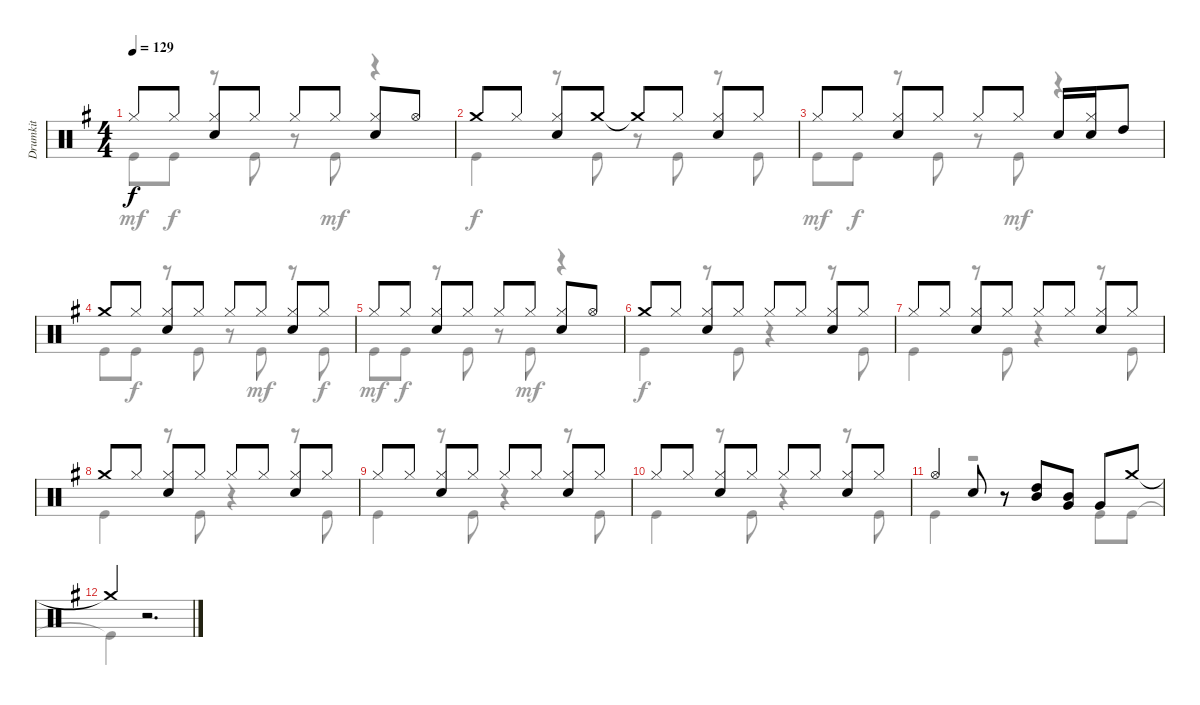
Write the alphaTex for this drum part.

\track ("Drumkit" "Drumkit") {instrument percussion}
\staff {score}
\articulation defaults
\voice
\ts (4 4)
\tempo 129
\clef neutral
\ks g "Hi-Hat (closed)".8{dy f} "Hi-Hat (closed)".8
("Hi-Hat (closed)" "Snare (hit) 2").8 "Hi-Hat (closed)".8 "Hi-Hat (closed)".8 "Hi-Hat (closed)".8 ("Hi-Hat (closed)" "Snare (hit) 2").8 "Hi-Hat (open)".8 |
"Crash medium (hit)".8 "Hi-Hat (closed)".8 ("Hi-Hat (closed)" "Snare (hit) 2").8 "Crash medium (hit)".8 "Crash medium (hit)"{t}.8 "Hi-Hat (closed)".8 ("Hi-Hat (closed)" "Snare (hit) 2").8 "Hi-Hat (closed)".8 |
"Hi-Hat (closed)".8 "Hi-Hat (closed)".8 ("Hi-Hat (closed)" "Snare (hit) 2").8 "Hi-Hat (closed)".8 "Hi-Hat (closed)".8 "Hi-Hat (closed)".8 "Snare (hit) 2".16 ("Hi-Hat (closed)" "Snare (hit) 2").16 "High Tom (hit)".8 |
"Crash medium (hit)".8 "Hi-Hat (closed)".8 ("Hi-Hat (closed)" "Snare (hit) 2").8 "Hi-Hat (closed)".8 "Hi-Hat (closed)".8 "Hi-Hat (closed)".8 ("Hi-Hat (closed)" "Snare (hit) 2").8 "Hi-Hat (closed)".8 |
"Hi-Hat (closed)".8 "Hi-Hat (closed)".8 ("Hi-Hat (closed)" "Snare (hit) 2").8 "Hi-Hat (closed)".8 "Hi-Hat (closed)".8 "Hi-Hat (closed)".8 ("Hi-Hat (closed)" "Snare (hit) 2").8 "Hi-Hat (open)".8 |
"Crash medium (hit)".8 "Hi-Hat (closed)".8 ("Hi-Hat (closed)" "Snare (hit) 2").8 "Hi-Hat (closed)".8 "Hi-Hat (closed)".8 "Hi-Hat (closed)".8 ("Hi-Hat (closed)" "Snare (hit) 2").8 "Hi-Hat (closed)".8 |
"Hi-Hat (closed)".8 "Hi-Hat (closed)".8 ("Hi-Hat (closed)" "Snare (hit) 2").8 "Hi-Hat (closed)".8 "Hi-Hat (closed)".8 "Hi-Hat (closed)".8 ("Hi-Hat (closed)" "Snare (hit) 2").8 "Hi-Hat (closed)".8 |
"Crash medium (hit)".8 "Hi-Hat (closed)".8 ("Hi-Hat (closed)" "Snare (hit) 2").8 "Hi-Hat (closed)".8 "Hi-Hat (closed)".8 "Hi-Hat (closed)".8 ("Hi-Hat (closed)" "Snare (hit) 2").8 "Hi-Hat (closed)".8 |
"Hi-Hat (closed)".8 "Hi-Hat (closed)".8 ("Hi-Hat (closed)" "Snare (hit) 2").8 "Hi-Hat (closed)".8 "Hi-Hat (closed)".8 "Hi-Hat (closed)".8 ("Hi-Hat (closed)" "Snare (hit) 2").8 "Hi-Hat (closed)".8 |
"Hi-Hat (closed)".8 "Hi-Hat (closed)".8 ("Hi-Hat (closed)" "Snare (hit) 2").8 "Hi-Hat (closed)".8 "Hi-Hat (closed)".8 "Hi-Hat (closed)".8 ("Hi-Hat (closed)" "Snare (hit) 2").8 "Hi-Hat (closed)".8 |
"Hi-Hat (open)".4 "Snare (hit) 2".8 r.8 ("Mid Tom (hit)" "High Tom (hit)").8 ("Mid Tom (hit)" "Very Low Tom (hit)").8 "Very Low Tom (hit)".8 "Crash medium (hit)".8 |
"Crash medium (hit)"{t}.4 r.2{d}
\voice
\clef neutral
\ottava regular
\simile none
\ks g "Kick (hit)".8{dy mf} "Kick (hit)".8{dy f}
r.8 "Kick (hit)".8 r.8 "Kick (hit)".8{dy mf} r.4 |
"Kick (hit)".4{dy f} r.8 "Kick (hit)".8 r.8 "Kick (hit)".8 r.8 "Kick (hit)".8 |
"Kick (hit)".8{dy mf} "Kick (hit)".8{dy f} r.8 "Kick (hit)".8 r.8 "Kick (hit)".8{dy mf} r.4 |
"Kick (hit)".8 "Kick (hit)".8{dy f} r.8 "Kick (hit)".8 r.8 "Kick (hit)".8{dy mf} r.8 "Kick (hit)".8{dy f} |
"Kick (hit)".8{dy mf} "Kick (hit)".8{dy f} r.8 "Kick (hit)".8 r.8 "Kick (hit)".8{dy mf} r.4 |
"Kick (hit)".4{dy f} r.8 "Kick (hit)".8 r.4 r.8 "Kick (hit)".8 |
"Kick (hit)".4 r.8 "Kick (hit)".8 r.4 r.8 "Kick (hit)".8 |
"Kick (hit)".4 r.8 "Kick (hit)".8 r.4 r.8 "Kick (hit)".8 |
"Kick (hit)".4 r.8 "Kick (hit)".8 r.4 r.8 "Kick (hit)".8 |
"Kick (hit)".4 r.8 "Kick (hit)".8 r.4 r.8 "Kick (hit)".8 |
"Kick (hit)".4 r.2 "Kick (hit)".8 "Kick (hit)".8 |
"Kick (hit)"{t}.4 r.2{d}
